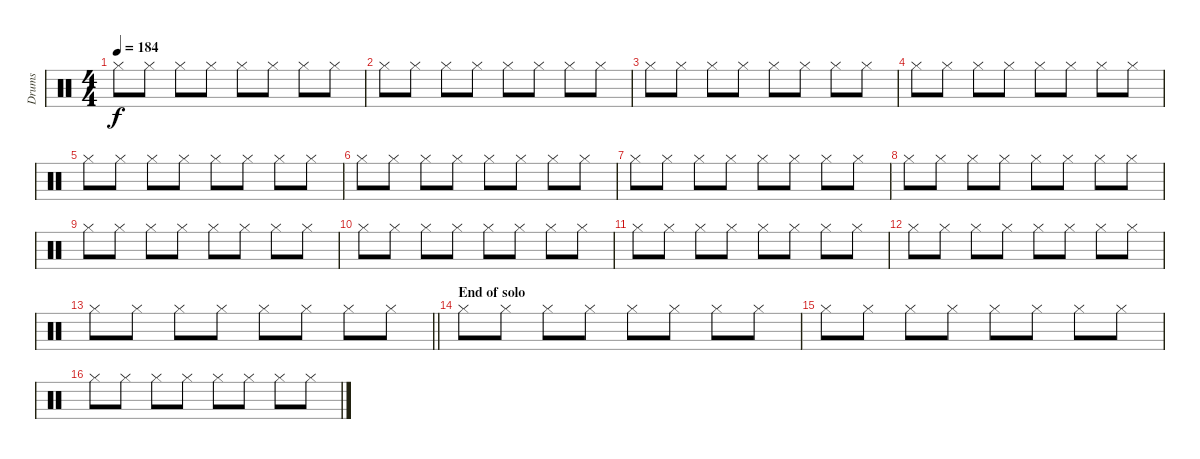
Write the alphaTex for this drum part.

\track ("Drums" "Drums") {instrument percussion}
\staff {score}
\articulation defaults
\ts (4 4)
\tempo 184
\clef neutral
\ks c "Hi-Hat (closed)".8{dy f} "Hi-Hat (closed)".8 "Hi-Hat (closed)".8 "Hi-Hat (closed)".8 "Hi-Hat (closed)".8 "Hi-Hat (closed)".8 "Hi-Hat (closed)".8 "Hi-Hat (closed)".8
|
"Hi-Hat (closed)".8 "Hi-Hat (closed)".8 "Hi-Hat (closed)".8 "Hi-Hat (closed)".8 "Hi-Hat (closed)".8 "Hi-Hat (closed)".8 "Hi-Hat (closed)".8 "Hi-Hat (closed)".8 |
"Hi-Hat (closed)".8 "Hi-Hat (closed)".8 "Hi-Hat (closed)".8 "Hi-Hat (closed)".8 "Hi-Hat (closed)".8 "Hi-Hat (closed)".8 "Hi-Hat (closed)".8 "Hi-Hat (closed)".8 |
"Hi-Hat (closed)".8 "Hi-Hat (closed)".8 "Hi-Hat (closed)".8 "Hi-Hat (closed)".8 "Hi-Hat (closed)".8 "Hi-Hat (closed)".8 "Hi-Hat (closed)".8 "Hi-Hat (closed)".8 |
"Hi-Hat (closed)".8 "Hi-Hat (closed)".8 "Hi-Hat (closed)".8 "Hi-Hat (closed)".8 "Hi-Hat (closed)".8 "Hi-Hat (closed)".8 "Hi-Hat (closed)".8 "Hi-Hat (closed)".8 |
"Hi-Hat (closed)".8 "Hi-Hat (closed)".8 "Hi-Hat (closed)".8 "Hi-Hat (closed)".8 "Hi-Hat (closed)".8 "Hi-Hat (closed)".8 "Hi-Hat (closed)".8 "Hi-Hat (closed)".8 |
"Hi-Hat (closed)".8 "Hi-Hat (closed)".8 "Hi-Hat (closed)".8 "Hi-Hat (closed)".8 "Hi-Hat (closed)".8 "Hi-Hat (closed)".8 "Hi-Hat (closed)".8 "Hi-Hat (closed)".8 |
"Hi-Hat (closed)".8 "Hi-Hat (closed)".8 "Hi-Hat (closed)".8 "Hi-Hat (closed)".8 "Hi-Hat (closed)".8 "Hi-Hat (closed)".8 "Hi-Hat (closed)".8 "Hi-Hat (closed)".8 |
"Hi-Hat (closed)".8 "Hi-Hat (closed)".8 "Hi-Hat (closed)".8 "Hi-Hat (closed)".8 "Hi-Hat (closed)".8 "Hi-Hat (closed)".8 "Hi-Hat (closed)".8 "Hi-Hat (closed)".8 |
"Hi-Hat (closed)".8 "Hi-Hat (closed)".8 "Hi-Hat (closed)".8 "Hi-Hat (closed)".8 "Hi-Hat (closed)".8 "Hi-Hat (closed)".8 "Hi-Hat (closed)".8 "Hi-Hat (closed)".8 |
"Hi-Hat (closed)".8 "Hi-Hat (closed)".8 "Hi-Hat (closed)".8 "Hi-Hat (closed)".8 "Hi-Hat (closed)".8 "Hi-Hat (closed)".8 "Hi-Hat (closed)".8 "Hi-Hat (closed)".8 |
"Hi-Hat (closed)".8 "Hi-Hat (closed)".8 "Hi-Hat (closed)".8 "Hi-Hat (closed)".8 "Hi-Hat (closed)".8 "Hi-Hat (closed)".8 "Hi-Hat (closed)".8 "Hi-Hat (closed)".8 |
\barLineRight lightlight "Hi-Hat (closed)".8 "Hi-Hat (closed)".8 "Hi-Hat (closed)".8 "Hi-Hat (closed)".8 "Hi-Hat (closed)".8 "Hi-Hat (closed)".8 "Hi-Hat (closed)".8 "Hi-Hat (closed)".8
|
\section ("" "End of solo")
"Hi-Hat (closed)".8 "Hi-Hat (closed)".8 "Hi-Hat (closed)".8 "Hi-Hat (closed)".8 "Hi-Hat (closed)".8 "Hi-Hat (closed)".8 "Hi-Hat (closed)".8 "Hi-Hat (closed)".8 |
"Hi-Hat (closed)".8 "Hi-Hat (closed)".8 "Hi-Hat (closed)".8 "Hi-Hat (closed)".8 "Hi-Hat (closed)".8 "Hi-Hat (closed)".8 "Hi-Hat (closed)".8 "Hi-Hat (closed)".8 |
"Hi-Hat (closed)".8 "Hi-Hat (closed)".8 "Hi-Hat (closed)".8 "Hi-Hat (closed)".8 "Hi-Hat (closed)".8 "Hi-Hat (closed)".8 "Hi-Hat (closed)".8 "Hi-Hat (closed)".8
